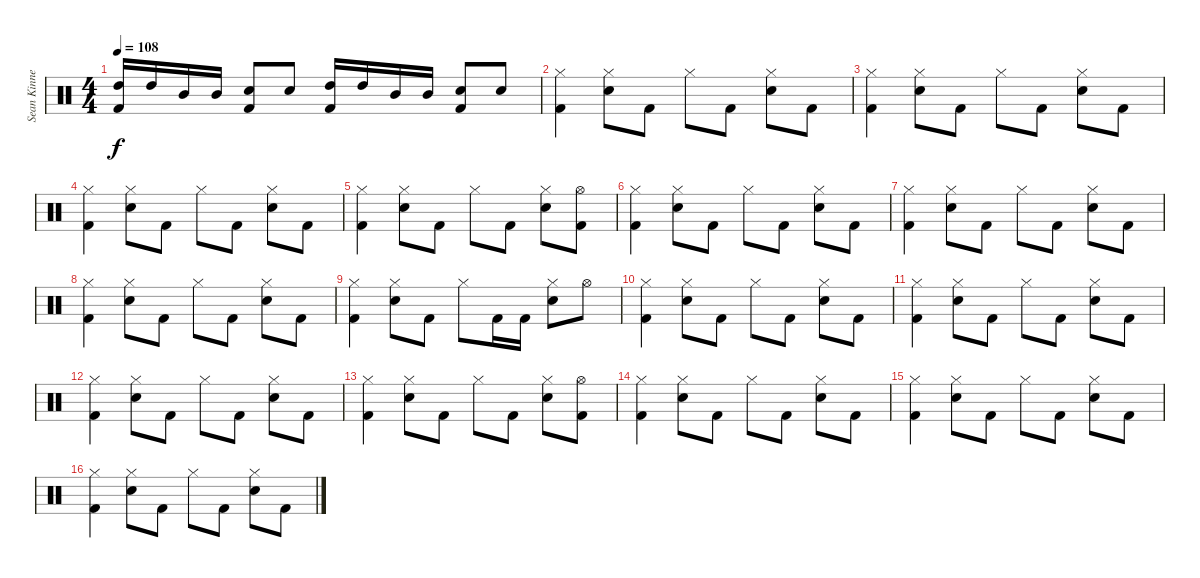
\track ("Sean Kinney - Drums" "Sean Kinne") {instrument percussion}
\staff {score}
\articulation defaults
\ts (4 4)
\tempo 108
\clef neutral
\ks c
("High Tom (hit)" "Kick (hit) 2").16{dy f} "High Tom (hit)".16 "Mid Tom (hit)".16 "Mid Tom (hit)".16 ("Electric Snare (hit)" "Kick (hit) 2").8 "Electric Snare (hit)".8 ("High Tom (hit)" "Kick (hit) 2").16 "High Tom (hit)".16 "Mid Tom (hit)".16 "Mid Tom (hit)".16 ("Electric Snare (hit)" "Kick (hit) 2").8 "Electric Snare (hit)".8 |
("Hi-Hat (closed)" "Kick (hit) 2").4 ("Hi-Hat (closed)" "Electric Snare (hit)").8 "Kick (hit) 2".8 "Hi-Hat (closed)".8 "Kick (hit) 2".8 ("Hi-Hat (closed)" "Electric Snare (hit)").8 "Kick (hit) 2".8 |
("Hi-Hat (closed)" "Kick (hit) 2").4 ("Hi-Hat (closed)" "Electric Snare (hit)").8 "Kick (hit) 2".8 "Hi-Hat (closed)".8 "Kick (hit) 2".8 ("Hi-Hat (closed)" "Electric Snare (hit)").8 "Kick (hit) 2".8 |
("Hi-Hat (closed)" "Kick (hit) 2").4 ("Hi-Hat (closed)" "Electric Snare (hit)").8 "Kick (hit) 2".8 "Hi-Hat (closed)".8 "Kick (hit) 2".8 ("Hi-Hat (closed)" "Electric Snare (hit)").8 "Kick (hit) 2".8 |
("Hi-Hat (closed)" "Kick (hit) 2").4 ("Hi-Hat (closed)" "Electric Snare (hit)").8 "Kick (hit) 2".8 "Hi-Hat (closed)".8 "Kick (hit) 2".8 ("Hi-Hat (closed)" "Electric Snare (hit)").8 ("Hi-Hat (open)" "Kick (hit) 2").8 |
("Hi-Hat (closed)" "Kick (hit) 2").4 ("Hi-Hat (closed)" "Electric Snare (hit)").8 "Kick (hit) 2".8 "Hi-Hat (closed)".8 "Kick (hit) 2".8 ("Hi-Hat (closed)" "Electric Snare (hit)").8 "Kick (hit) 2".8 |
("Hi-Hat (closed)" "Kick (hit) 2").4 ("Hi-Hat (closed)" "Electric Snare (hit)").8 "Kick (hit) 2".8 "Hi-Hat (closed)".8 "Kick (hit) 2".8 ("Hi-Hat (closed)" "Electric Snare (hit)").8 "Kick (hit) 2".8 |
("Hi-Hat (closed)" "Kick (hit) 2").4 ("Hi-Hat (closed)" "Electric Snare (hit)").8 "Kick (hit) 2".8 "Hi-Hat (closed)".8 "Kick (hit) 2".8 ("Hi-Hat (closed)" "Electric Snare (hit)").8 "Kick (hit) 2".8 |
("Hi-Hat (closed)" "Kick (hit) 2").4 ("Hi-Hat (closed)" "Electric Snare (hit)").8 "Kick (hit) 2".8 "Hi-Hat (closed)".8 "Kick (hit) 2".16 "Kick (hit) 2".16 ("Hi-Hat (closed)" "Electric Snare (hit)").8 "Hi-Hat (open)".8 |
("Hi-Hat (closed)" "Kick (hit) 2").4 ("Hi-Hat (closed)" "Electric Snare (hit)").8 "Kick (hit) 2".8 "Hi-Hat (closed)".8 "Kick (hit) 2".8 ("Hi-Hat (closed)" "Electric Snare (hit)").8 "Kick (hit) 2".8 |
("Hi-Hat (closed)" "Kick (hit) 2").4 ("Hi-Hat (closed)" "Electric Snare (hit)").8 "Kick (hit) 2".8 "Hi-Hat (closed)".8 "Kick (hit) 2".8 ("Hi-Hat (closed)" "Electric Snare (hit)").8 "Kick (hit) 2".8 |
("Hi-Hat (closed)" "Kick (hit) 2").4 ("Hi-Hat (closed)" "Electric Snare (hit)").8 "Kick (hit) 2".8 "Hi-Hat (closed)".8 "Kick (hit) 2".8 ("Hi-Hat (closed)" "Electric Snare (hit)").8 "Kick (hit) 2".8 |
("Hi-Hat (closed)" "Kick (hit) 2").4 ("Hi-Hat (closed)" "Electric Snare (hit)").8 "Kick (hit) 2".8 "Hi-Hat (closed)".8 "Kick (hit) 2".8 ("Hi-Hat (closed)" "Electric Snare (hit)").8 ("Hi-Hat (open)" "Kick (hit) 2").8 |
("Hi-Hat (closed)" "Kick (hit) 2").4 ("Hi-Hat (closed)" "Electric Snare (hit)").8 "Kick (hit) 2".8 "Hi-Hat (closed)".8 "Kick (hit) 2".8 ("Hi-Hat (closed)" "Electric Snare (hit)").8 "Kick (hit) 2".8 |
("Hi-Hat (closed)" "Kick (hit) 2").4 ("Hi-Hat (closed)" "Electric Snare (hit)").8 "Kick (hit) 2".8 "Hi-Hat (closed)".8 "Kick (hit) 2".8 ("Hi-Hat (closed)" "Electric Snare (hit)").8 "Kick (hit) 2".8 |
("Hi-Hat (closed)" "Kick (hit) 2").4 ("Hi-Hat (closed)" "Electric Snare (hit)").8 "Kick (hit) 2".8 "Hi-Hat (closed)".8 "Kick (hit) 2".8 ("Hi-Hat (closed)" "Electric Snare (hit)").8 "Kick (hit) 2".8
